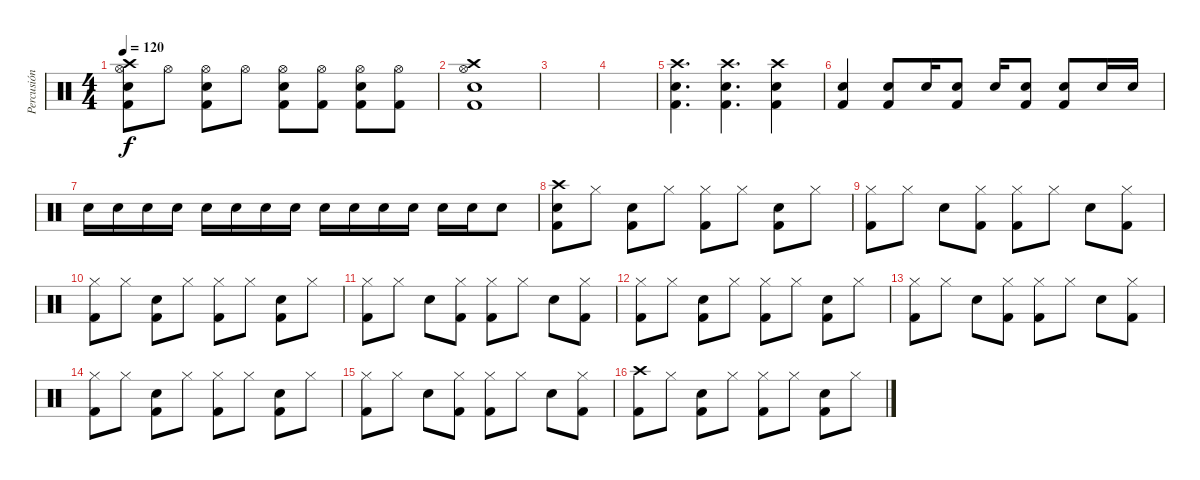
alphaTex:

\track ("Percusión" "Percusión") {instrument percussion}
\staff {score}
\articulation defaults
\ts (4 4)
\tempo 120
\clef neutral
\ks c
("Crash high (hit)" "Hi-Hat (open)" "Electric Snare (hit)" "Kick (hit) 2").8{dy f} "Hi-Hat (open)".8 ("Hi-Hat (open)" "Electric Snare (hit)" "Kick (hit) 2").8 "Hi-Hat (open)".8 ("Hi-Hat (open)" "Electric Snare (hit)" "Kick (hit) 2").8 ("Hi-Hat (open)" "Kick (hit) 2").8 ("Hi-Hat (open)" "Electric Snare (hit)" "Kick (hit) 2").8 ("Hi-Hat (open)" "Kick (hit) 2").8 |
("Crash high (hit)" "Hi-Hat (open)" "Electric Snare (hit)" "Kick (hit) 2").1 |
|
|
("Crash high (hit)" "Electric Snare (hit)" "Kick (hit) 2").4{d} ("Crash high (hit)" "Electric Snare (hit)" "Kick (hit) 2").4{d} ("Crash high (hit)" "Electric Snare (hit)" "Kick (hit) 2").4 |
("Electric Snare (hit)" "Kick (hit) 2").4 ("Electric Snare (hit)" "Kick (hit) 2").8 "Electric Snare (hit)".16 ("Electric Snare (hit)" "Kick (hit) 2").8 "Electric Snare (hit)".16 ("Electric Snare (hit)" "Kick (hit) 2").8 ("Electric Snare (hit)" "Kick (hit) 2").8 "Electric Snare (hit)".16 "Electric Snare (hit)".16 |
"Electric Snare (hit)".16 "Electric Snare (hit)".16 "Electric Snare (hit)".16 "Electric Snare (hit)".16 "Electric Snare (hit)".16 "Electric Snare (hit)".16 "Electric Snare (hit)".16 "Electric Snare (hit)".16 "Electric Snare (hit)".16 "Electric Snare (hit)".16 "Electric Snare (hit)".16 "Electric Snare (hit)".16 "Electric Snare (hit)".16 "Electric Snare (hit)".16 "Electric Snare (hit)".8 |
("Crash high (hit)" "Electric Snare (hit)" "Kick (hit) 2").8 "Hi-Hat (closed)".8 ("Electric Snare (hit)" "Kick (hit) 2").8 "Hi-Hat (closed)".8 ("Hi-Hat (closed)" "Kick (hit) 2").8 "Hi-Hat (closed)".8 ("Electric Snare (hit)" "Kick (hit) 2").8 "Hi-Hat (closed)".8 |
("Hi-Hat (closed)" "Kick (hit) 2").8 "Hi-Hat (closed)".8 "Electric Snare (hit)".8 ("Hi-Hat (closed)" "Kick (hit) 2").8 ("Hi-Hat (closed)" "Kick (hit) 2").8 "Hi-Hat (closed)".8 "Electric Snare (hit)".8 ("Hi-Hat (closed)" "Kick (hit) 2").8 |
("Hi-Hat (closed)" "Kick (hit) 2").8 "Hi-Hat (closed)".8 ("Electric Snare (hit)" "Kick (hit) 2").8 "Hi-Hat (closed)".8 ("Hi-Hat (closed)" "Kick (hit) 2").8 "Hi-Hat (closed)".8 ("Electric Snare (hit)" "Kick (hit) 2").8 "Hi-Hat (closed)".8 |
("Hi-Hat (closed)" "Kick (hit) 2").8 "Hi-Hat (closed)".8 "Electric Snare (hit)".8 ("Hi-Hat (closed)" "Kick (hit) 2").8 ("Hi-Hat (closed)" "Kick (hit) 2").8 "Hi-Hat (closed)".8 "Electric Snare (hit)".8 ("Hi-Hat (closed)" "Kick (hit) 2").8 |
("Hi-Hat (closed)" "Kick (hit) 2").8 "Hi-Hat (closed)".8 ("Electric Snare (hit)" "Kick (hit) 2").8 "Hi-Hat (closed)".8 ("Hi-Hat (closed)" "Kick (hit) 2").8 "Hi-Hat (closed)".8 ("Electric Snare (hit)" "Kick (hit) 2").8 "Hi-Hat (closed)".8 |
("Hi-Hat (closed)" "Kick (hit) 2").8 "Hi-Hat (closed)".8 "Electric Snare (hit)".8 ("Hi-Hat (closed)" "Kick (hit) 2").8 ("Hi-Hat (closed)" "Kick (hit) 2").8 "Hi-Hat (closed)".8 "Electric Snare (hit)".8 ("Hi-Hat (closed)" "Kick (hit) 2").8 |
("Hi-Hat (closed)" "Kick (hit) 2").8 "Hi-Hat (closed)".8 ("Electric Snare (hit)" "Kick (hit) 2").8 "Hi-Hat (closed)".8 ("Hi-Hat (closed)" "Kick (hit) 2").8 "Hi-Hat (closed)".8 ("Electric Snare (hit)" "Kick (hit) 2").8 "Hi-Hat (closed)".8 |
("Hi-Hat (closed)" "Kick (hit) 2").8 "Hi-Hat (closed)".8 "Electric Snare (hit)".8 ("Hi-Hat (closed)" "Kick (hit) 2").8 ("Hi-Hat (closed)" "Kick (hit) 2").8 "Hi-Hat (closed)".8 "Electric Snare (hit)".8 ("Hi-Hat (closed)" "Kick (hit) 2").8 |
("Crash high (hit)" "Kick (hit) 2").8 "Hi-Hat (closed)".8 ("Electric Snare (hit)" "Kick (hit) 2").8 "Hi-Hat (closed)".8 ("Hi-Hat (closed)" "Kick (hit) 2").8 "Hi-Hat (closed)".8 ("Electric Snare (hit)" "Kick (hit) 2").8 "Hi-Hat (closed)".8
